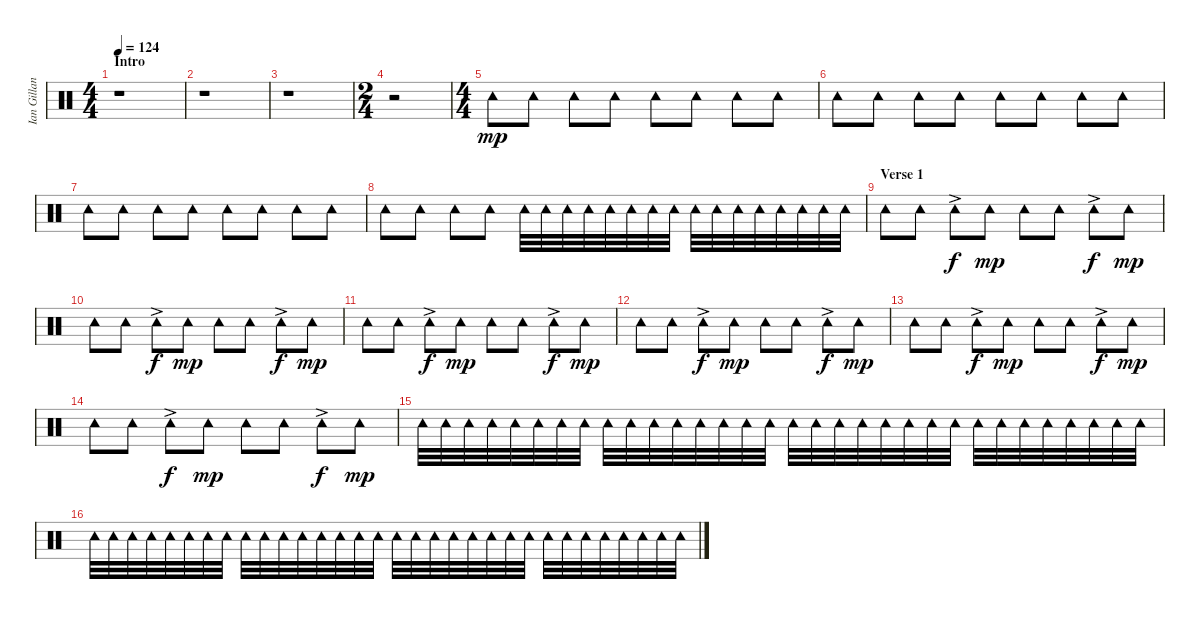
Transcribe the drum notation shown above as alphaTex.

\track ("Ian Gillan (percussions)" "Ian Gillan") {instrument percussion}
\staff {score}
\articulation defaults
\ts (4 4)
\section ("" "Intro")
\tempo 124
\clef neutral
\ks c
r.1{dy mp} |
r.1 |
r.1 |
\ts (2 4)
r.2 |
\ts (4 4)
"Tambourine (hit)".8 "Tambourine (hit)".8 "Tambourine (hit)".8 "Tambourine (hit)".8 "Tambourine (hit)".8 "Tambourine (hit)".8 "Tambourine (hit)".8 "Tambourine (hit)".8 |
"Tambourine (hit)".8 "Tambourine (hit)".8 "Tambourine (hit)".8 "Tambourine (hit)".8 "Tambourine (hit)".8 "Tambourine (hit)".8 "Tambourine (hit)".8 "Tambourine (hit)".8 |
"Tambourine (hit)".8 "Tambourine (hit)".8 "Tambourine (hit)".8 "Tambourine (hit)".8 "Tambourine (hit)".8 "Tambourine (hit)".8 "Tambourine (hit)".8 "Tambourine (hit)".8 |
"Tambourine (hit)".8 "Tambourine (hit)".8 "Tambourine (hit)".8 "Tambourine (hit)".8 "Tambourine (hit)".32 "Tambourine (hit)".32 "Tambourine (hit)".32 "Tambourine (hit)".32 "Tambourine (hit)".32 "Tambourine (hit)".32 "Tambourine (hit)".32 "Tambourine (hit)".32 "Tambourine (hit)".32 "Tambourine (hit)".32 "Tambourine (hit)".32 "Tambourine (hit)".32 "Tambourine (hit)".32 "Tambourine (hit)".32 "Tambourine (hit)".32 "Tambourine (hit)".32 |
\section ("" "Verse 1")
"Tambourine (hit)".8 "Tambourine (hit)".8 "Tambourine (hit)"{ac}.8{dy f} "Tambourine (hit)".8{dy mp} "Tambourine (hit)".8 "Tambourine (hit)".8 "Tambourine (hit)"{ac}.8{dy f} "Tambourine (hit)".8{dy mp} |
"Tambourine (hit)".8 "Tambourine (hit)".8 "Tambourine (hit)"{ac}.8{dy f} "Tambourine (hit)".8{dy mp} "Tambourine (hit)".8 "Tambourine (hit)".8 "Tambourine (hit)"{ac}.8{dy f} "Tambourine (hit)".8{dy mp} |
"Tambourine (hit)".8 "Tambourine (hit)".8 "Tambourine (hit)"{ac}.8{dy f} "Tambourine (hit)".8{dy mp} "Tambourine (hit)".8 "Tambourine (hit)".8 "Tambourine (hit)"{ac}.8{dy f} "Tambourine (hit)".8{dy mp} |
"Tambourine (hit)".8 "Tambourine (hit)".8 "Tambourine (hit)"{ac}.8{dy f} "Tambourine (hit)".8{dy mp} "Tambourine (hit)".8 "Tambourine (hit)".8 "Tambourine (hit)"{ac}.8{dy f} "Tambourine (hit)".8{dy mp} |
"Tambourine (hit)".8 "Tambourine (hit)".8 "Tambourine (hit)"{ac}.8{dy f} "Tambourine (hit)".8{dy mp} "Tambourine (hit)".8 "Tambourine (hit)".8 "Tambourine (hit)"{ac}.8{dy f} "Tambourine (hit)".8{dy mp} |
"Tambourine (hit)".8 "Tambourine (hit)".8 "Tambourine (hit)"{ac}.8{dy f} "Tambourine (hit)".8{dy mp} "Tambourine (hit)".8 "Tambourine (hit)".8 "Tambourine (hit)"{ac}.8{dy f} "Tambourine (hit)".8{dy mp} |
"Tambourine (hit)".32 "Tambourine (hit)".32 "Tambourine (hit)".32 "Tambourine (hit)".32 "Tambourine (hit)".32 "Tambourine (hit)".32 "Tambourine (hit)".32 "Tambourine (hit)".32 "Tambourine (hit)".32 "Tambourine (hit)".32 "Tambourine (hit)".32 "Tambourine (hit)".32 "Tambourine (hit)".32 "Tambourine (hit)".32 "Tambourine (hit)".32 "Tambourine (hit)".32 "Tambourine (hit)".32 "Tambourine (hit)".32 "Tambourine (hit)".32 "Tambourine (hit)".32 "Tambourine (hit)".32 "Tambourine (hit)".32 "Tambourine (hit)".32 "Tambourine (hit)".32 "Tambourine (hit)".32 "Tambourine (hit)".32 "Tambourine (hit)".32 "Tambourine (hit)".32 "Tambourine (hit)".32 "Tambourine (hit)".32 "Tambourine (hit)".32 "Tambourine (hit)".32 |
"Tambourine (hit)".32 "Tambourine (hit)".32 "Tambourine (hit)".32 "Tambourine (hit)".32 "Tambourine (hit)".32 "Tambourine (hit)".32 "Tambourine (hit)".32 "Tambourine (hit)".32 "Tambourine (hit)".32 "Tambourine (hit)".32 "Tambourine (hit)".32 "Tambourine (hit)".32 "Tambourine (hit)".32 "Tambourine (hit)".32 "Tambourine (hit)".32 "Tambourine (hit)".32 "Tambourine (hit)".32 "Tambourine (hit)".32 "Tambourine (hit)".32 "Tambourine (hit)".32 "Tambourine (hit)".32 "Tambourine (hit)".32 "Tambourine (hit)".32 "Tambourine (hit)".32 "Tambourine (hit)".32 "Tambourine (hit)".32 "Tambourine (hit)".32 "Tambourine (hit)".32 "Tambourine (hit)".32 "Tambourine (hit)".32 "Tambourine (hit)".32 "Tambourine (hit)".32
